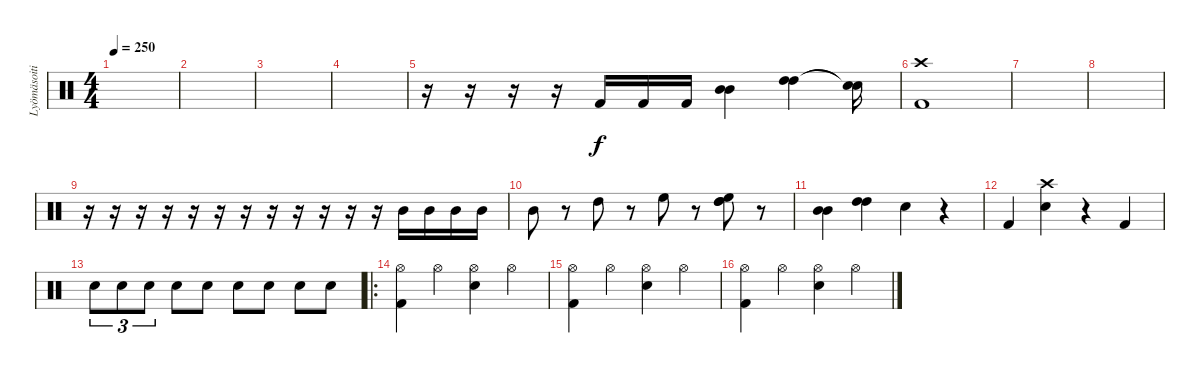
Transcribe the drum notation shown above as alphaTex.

\track ("Lyömäsoitin" "Lyömäsoiti") {instrument percussion}
\staff {score}
\articulation defaults
\ts (4 4)
\tempo 250
\clef neutral
\ks c
|
|
|
|
r.16 r.16 r.16 r.16 "Kick (hit) 2".16 "Kick (hit) 2".16 "Kick (hit) 2".16 ("Mid Tom (hit)" "Mid Tom (hit)").4 ("High Tom (hit)" "High Tom (hit)").4 ("Snare (hit)"{t} "Snare (hit)"{t}).16 |
("Crash high (hit)" "Kick (hit) 2").1 |
|
|
r.16 r.16 r.16 r.16 r.16 r.16 r.16 r.16 r.16 r.16 r.16 r.16 "Mid Tom (hit)".16 "Mid Tom (hit)".16 "Mid Tom (hit)".16 "Mid Tom (hit)".16 |
"Mid Tom (hit)".8 r.8 "High Tom (hit)".8 r.8 "High Floor Tom (hit)".8 r.8 ("High Tom (hit)" "High Tom (hit)" "High Floor Tom (hit)").8 r.8 |
("Mid Tom (hit)" "Mid Tom (hit)").4 ("High Tom (hit)" "High Tom (hit)").4 "Electric Snare (hit)".4 r.4 |
"Kick (hit) 2".4 ("Crash high (hit)" "Electric Snare (hit)").4 r.4 "Kick (hit) 2".4 |
"Electric Snare (hit)".8{tu (3 2)} "Electric Snare (hit)".8{tu (3 2)} "Electric Snare (hit)".8{tu (3 2)} "Electric Snare (hit)".8 "Electric Snare (hit)".8 "Electric Snare (hit)".8 "Electric Snare (hit)".8 "Electric Snare (hit)".8 "Electric Snare (hit)".8 |
\ro
("Hi-Hat (open)" "Kick (hit) 2").4 "Hi-Hat (open)".4 ("Hi-Hat (open)" "Electric Snare (hit)").4 "Hi-Hat (open)".4 |
("Hi-Hat (open)" "Kick (hit) 2").4 "Hi-Hat (open)".4 ("Hi-Hat (open)" "Electric Snare (hit)").4 "Hi-Hat (open)".4 |
("Hi-Hat (open)" "Kick (hit) 2").4 "Hi-Hat (open)".4 ("Hi-Hat (open)" "Electric Snare (hit)").4 "Hi-Hat (open)".4
